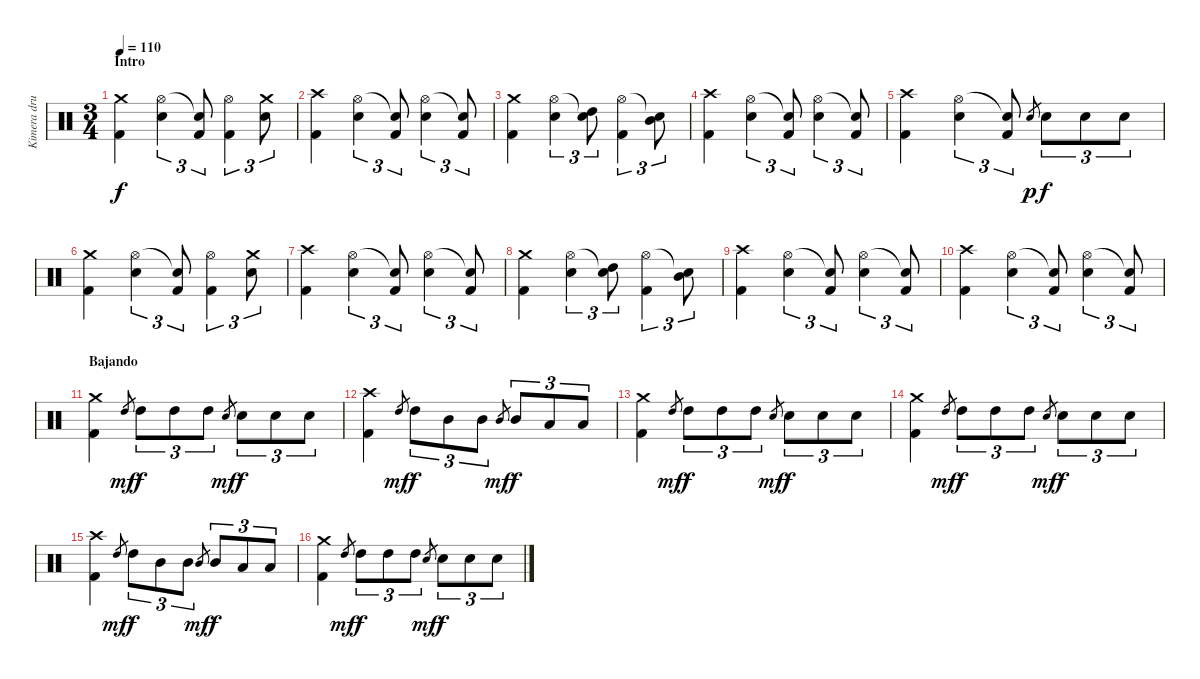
\track ("Kimera drummer" "Kimera dru") {instrument percussion}
\staff {score}
\articulation defaults
\ts (3 4)
\section ("" "Intro")
\tempo 110
\clef neutral
\ks c
("Crash medium (hit)" "Kick (hit) 2").4{dy f} ("Hi-Hat (open)" "Electric Snare (hit)").4{tu (3 2)} ("Snare (hit)"{t} "Kick (hit) 2").8{tu (3 2)} ("Hi-Hat (open)" "Kick (hit) 2").4{tu (3 2)} ("Crash medium (hit)" "Electric Snare (hit)").8{tu (3 2)} |
("Crash high (hit)" "Kick (hit) 2").4 ("Hi-Hat (open)" "Electric Snare (hit)").4{tu (3 2)} ("Snare (hit)"{t} "Kick (hit) 2").8{tu (3 2)} ("Hi-Hat (open)" "Electric Snare (hit)").4{tu (3 2)} ("Snare (hit)"{t} "Kick (hit) 2").8{tu (3 2)} |
("Crash medium (hit)" "Kick (hit) 2").4 ("Hi-Hat (open)" "Electric Snare (hit)").4{tu (3 2)} ("Snare (hit)"{t} "High Tom (hit)").8{tu (3 2)} ("Hi-Hat (open)" "Kick (hit) 2").4{tu (3 2)} ("Snare (hit)"{t} "Mid Tom (hit)").8{tu (3 2)} |
("Crash high (hit)" "Kick (hit) 2").4 ("Hi-Hat (open)" "Electric Snare (hit)").4{tu (3 2)} ("Snare (hit)"{t} "Kick (hit) 2").8{tu (3 2)} ("Hi-Hat (open)" "Electric Snare (hit)").4{tu (3 2)} ("Snare (hit)"{t} "Kick (hit) 2").8{tu (3 2)} |
("Crash high (hit)" "Kick (hit) 2").4 ("Hi-Hat (open)" "Electric Snare (hit)").4{tu (3 2)} ("Snare (hit)"{t} "Kick (hit) 2").8{tu (3 2)} "Electric Snare (hit)".8{gr dy p} "Electric Snare (hit)".8{tu (3 2) dy f} "Electric Snare (hit)".8{tu (3 2)} "Electric Snare (hit)".8{tu (3 2)} |
("Crash medium (hit)" "Kick (hit) 2").4 ("Hi-Hat (open)" "Electric Snare (hit)").4{tu (3 2)} ("Snare (hit)"{t} "Kick (hit) 2").8{tu (3 2)} ("Hi-Hat (open)" "Kick (hit) 2").4{tu (3 2)} ("Crash medium (hit)" "Electric Snare (hit)").8{tu (3 2)} |
("Crash high (hit)" "Kick (hit) 2").4 ("Hi-Hat (open)" "Electric Snare (hit)").4{tu (3 2)} ("Snare (hit)"{t} "Kick (hit) 2").8{tu (3 2)} ("Hi-Hat (open)" "Electric Snare (hit)").4{tu (3 2)} ("Snare (hit)"{t} "Kick (hit) 2").8{tu (3 2)} |
("Crash medium (hit)" "Kick (hit) 2").4 ("Hi-Hat (open)" "Electric Snare (hit)").4{tu (3 2)} ("Snare (hit)"{t} "High Tom (hit)").8{tu (3 2)} ("Hi-Hat (open)" "Kick (hit) 2").4{tu (3 2)} ("Snare (hit)"{t} "Mid Tom (hit)").8{tu (3 2)} |
("Crash high (hit)" "Kick (hit) 2").4 ("Hi-Hat (open)" "Electric Snare (hit)").4{tu (3 2)} ("Snare (hit)"{t} "Kick (hit) 2").8{tu (3 2)} ("Hi-Hat (open)" "Electric Snare (hit)").4{tu (3 2)} ("Snare (hit)"{t} "Kick (hit) 2").8{tu (3 2)} |
("Crash high (hit)" "Kick (hit) 2").4 ("Hi-Hat (open)" "Electric Snare (hit)").4{tu (3 2)} ("Snare (hit)"{t} "Kick (hit) 2").8{tu (3 2)} ("Hi-Hat (open)" "Electric Snare (hit)").4{tu (3 2)} ("Snare (hit)"{t} "Kick (hit) 2").8{tu (3 2)} |
\section ("" "Bajando")
("Crash medium (hit)" "Kick (hit) 2").4 "High Tom (hit)".8{gr dy mf} "High Tom (hit)".8{tu (3 2) dy f} "High Tom (hit)".8{tu (3 2)} "High Tom (hit)".8{tu (3 2)} "Electric Snare (hit)".8{gr dy mf} "Electric Snare (hit)".8{tu (3 2) dy f} "Electric Snare (hit)".8{tu (3 2)} "Electric Snare (hit)".8{tu (3 2)} |
("Crash high (hit)" "Kick (hit) 2").4 "High Tom (hit)".8{gr dy mf} "High Tom (hit)".8{tu (3 2) dy f} "Mid Tom (hit)".8{tu (3 2)} "Mid Tom (hit)".8{tu (3 2)} "Mid Tom (hit)".8{gr dy mf} "Mid Tom (hit)".8{tu (3 2) dy f} "Low Tom (hit)".8{tu (3 2)} "Low Tom (hit)".8{tu (3 2)} |
("Crash medium (hit)" "Kick (hit) 2").4 "High Tom (hit)".8{gr dy mf} "High Tom (hit)".8{tu (3 2) dy f} "High Tom (hit)".8{tu (3 2)} "High Tom (hit)".8{tu (3 2)} "Electric Snare (hit)".8{gr dy mf} "Electric Snare (hit)".8{tu (3 2) dy f} "Electric Snare (hit)".8{tu (3 2)} "Electric Snare (hit)".8{tu (3 2)} |
("Crash medium (hit)" "Kick (hit) 2").4 "High Tom (hit)".8{gr dy mf} "High Tom (hit)".8{tu (3 2) dy f} "High Tom (hit)".8{tu (3 2)} "High Tom (hit)".8{tu (3 2)} "Electric Snare (hit)".8{gr dy mf} "Electric Snare (hit)".8{tu (3 2) dy f} "Electric Snare (hit)".8{tu (3 2)} "Electric Snare (hit)".8{tu (3 2)} |
("Crash high (hit)" "Kick (hit) 2").4 "High Tom (hit)".8{gr dy mf} "High Tom (hit)".8{tu (3 2) dy f} "Mid Tom (hit)".8{tu (3 2)} "Mid Tom (hit)".8{tu (3 2)} "Mid Tom (hit)".8{gr dy mf} "Mid Tom (hit)".8{tu (3 2) dy f} "Low Tom (hit)".8{tu (3 2)} "Low Tom (hit)".8{tu (3 2)} |
("Crash medium (hit)" "Kick (hit) 2").4 "High Tom (hit)".8{gr dy mf} "High Tom (hit)".8{tu (3 2) dy f} "High Tom (hit)".8{tu (3 2)} "High Tom (hit)".8{tu (3 2)} "Electric Snare (hit)".8{gr dy mf} "Electric Snare (hit)".8{tu (3 2) dy f} "Electric Snare (hit)".8{tu (3 2)} "Electric Snare (hit)".8{tu (3 2)}
